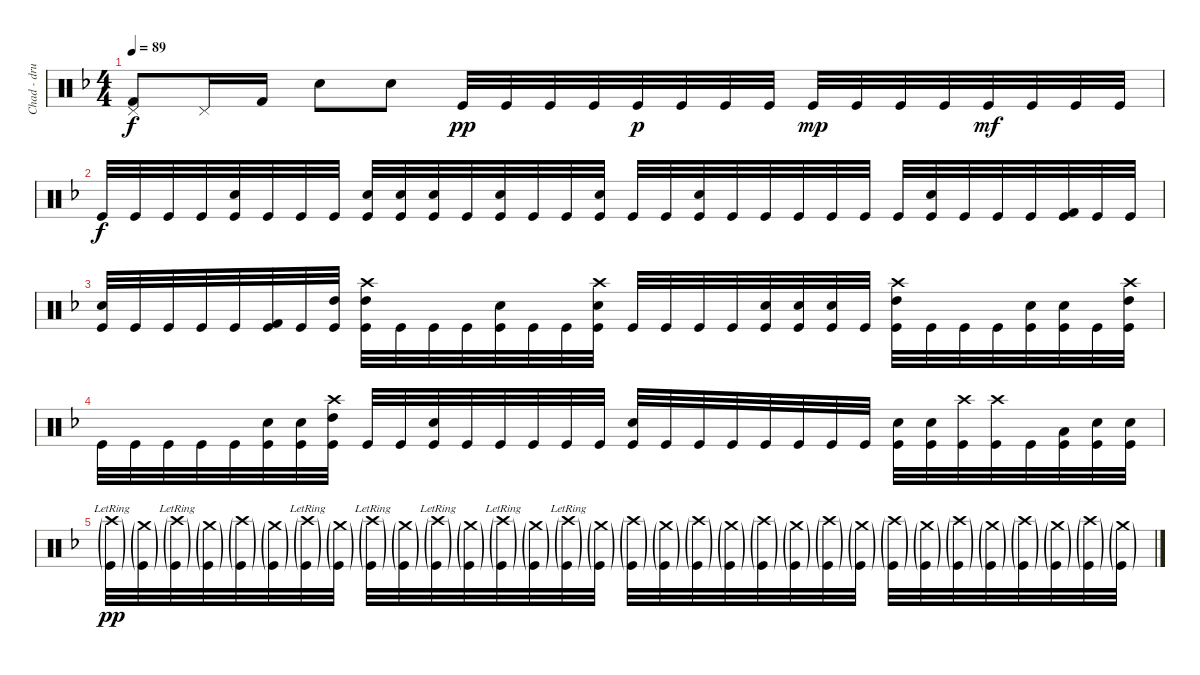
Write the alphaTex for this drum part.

\track ("Chad - drums" "Chad - dru") {instrument percussion}
\staff {score}
\articulation defaults
\ts (4 4)
\tempo 89
\clef neutral
\ks f
("Pedal Hi-Hat (hit)" "Kick (hit) 2").8{dy f} "Pedal Hi-Hat (hit)".16 "Kick (hit) 2".16 "Electric Snare (hit)".8 "Electric Snare (hit)".8 "Kick (hit)".32{dy pp} "Kick (hit)".32 "Kick (hit)".32 "Kick (hit)".32 "Kick (hit)".32{dy p} "Kick (hit)".32 "Kick (hit)".32 "Kick (hit)".32 "Kick (hit)".32{dy mp} "Kick (hit)".32 "Kick (hit)".32 "Kick (hit)".32 "Kick (hit)".32{dy mf} "Kick (hit)".32 "Kick (hit)".32 "Kick (hit)".32 |
"Kick (hit)".32{dy f} "Kick (hit)".32 "Kick (hit)".32 "Kick (hit)".32 ("Electric Snare (hit)" "Kick (hit)").32 "Kick (hit)".32 "Kick (hit)".32 "Kick (hit)".32 ("Electric Snare (hit)" "Kick (hit)").32 ("Electric Snare (hit)" "Kick (hit)").32 ("Electric Snare (hit)" "Kick (hit)").32 "Kick (hit)".32 ("Electric Snare (hit)" "Kick (hit)").32 "Kick (hit)".32 "Kick (hit)".32 ("Electric Snare (hit)" "Kick (hit)").32 "Kick (hit)".32 "Kick (hit)".32 ("Electric Snare (hit)" "Kick (hit)").32 "Kick (hit)".32 "Kick (hit)".32 "Kick (hit)".32 "Kick (hit)".32 "Kick (hit)".32 "Kick (hit)".32 ("Electric Snare (hit)" "Kick (hit)").32 "Kick (hit)".32 "Kick (hit)".32 "Kick (hit)".32 ("Kick (hit) 2" "Kick (hit)").32 "Kick (hit)".32 "Kick (hit)".32 |
("Electric Snare (hit)" "Kick (hit)").32 "Kick (hit)".32 "Kick (hit)".32 "Kick (hit)".32 "Kick (hit)".32 ("Kick (hit) 2" "Kick (hit)").32 "Kick (hit)".32 ("High Tom (hit)" "Kick (hit)").32 ("Crash high (hit)" "High Tom (hit)" "Kick (hit)").32 "Kick (hit)".32 "Kick (hit)".32 "Kick (hit)".32 ("Electric Snare (hit)" "Kick (hit)").32 "Kick (hit)".32 "Kick (hit)".32 ("Crash high (hit)" "Electric Snare (hit)" "Kick (hit)").32 "Kick (hit)".32 "Kick (hit)".32 "Kick (hit)".32 "Kick (hit)".32 ("Electric Snare (hit)" "Kick (hit)").32 ("Electric Snare (hit)" "Kick (hit)").32 ("Electric Snare (hit)" "Kick (hit)").32 "Kick (hit)".32 ("Crash high (hit)" "High Tom (hit)" "Kick (hit)").32 "Kick (hit)".32 "Kick (hit)".32 "Kick (hit)".32 ("Electric Snare (hit)" "Kick (hit)").32 ("Electric Snare (hit)" "Kick (hit)").32 "Kick (hit)".32 ("Crash high (hit)" "High Tom (hit)" "Kick (hit)").32 |
"Kick (hit)".32 "Kick (hit)".32 "Kick (hit)".32 "Kick (hit)".32 "Kick (hit)".32 ("Electric Snare (hit)" "Kick (hit)").32 ("Electric Snare (hit)" "Kick (hit)").32 ("Crash high (hit)" "High Tom (hit)" "Kick (hit)").32 "Kick (hit)".32 "Kick (hit)".32 ("Electric Snare (hit)" "Kick (hit)").32 "Kick (hit)".32 "Kick (hit)".32 "Kick (hit)".32 "Kick (hit)".32 "Kick (hit)".32 ("Electric Snare (hit)" "Kick (hit)").32 "Kick (hit)".32 "Kick (hit)".32 "Kick (hit)".32 "Kick (hit)".32 "Kick (hit)".32 "Kick (hit)".32 "Kick (hit)".32 ("Electric Snare (hit)" "Kick (hit)").32 ("Electric Snare (hit)" "Kick (hit)").32 ("Crash high (hit)" "Kick (hit)").32 ("Crash high (hit)" "Kick (hit)").32 "Kick (hit)".32 ("Low Tom (hit)" "Kick (hit)").32 ("Electric Snare (hit)" "Kick (hit)").32 ("Electric Snare (hit)" "Kick (hit)").32 |
("Crash high (hit)"{g lr} "Kick (hit)"{g}).32{dy pp} ("Crash medium (hit)"{g} "Kick (hit)"{g}).32 ("Crash high (hit)"{g lr} "Kick (hit)"{g}).32 ("Crash medium (hit)"{g} "Kick (hit)"{g}).32 ("Crash high (hit)"{g} "Kick (hit)"{g}).32 ("Crash medium (hit)"{g} "Kick (hit)"{g}).32 ("Crash high (hit)"{g lr} "Kick (hit)"{g}).32 ("Crash medium (hit)"{g} "Kick (hit)"{g}).32 ("Crash high (hit)"{g lr} "Kick (hit)"{g}).32 ("Crash medium (hit)"{g} "Kick (hit)"{g}).32 ("Crash high (hit)"{g lr} "Kick (hit)"{g}).32 ("Crash medium (hit)"{g} "Kick (hit)"{g}).32 ("Crash high (hit)"{g lr} "Kick (hit)"{g}).32 ("Crash medium (hit)"{g} "Kick (hit)"{g}).32 ("Crash high (hit)"{g lr} "Kick (hit)"{g}).32 ("Crash medium (hit)"{g} "Kick (hit)"{g}).32 ("Crash high (hit)"{g} "Kick (hit)"{g}).32 ("Crash medium (hit)"{g} "Kick (hit)"{g}).32 ("Crash high (hit)"{g} "Kick (hit)"{g}).32 ("Crash medium (hit)"{g} "Kick (hit)"{g}).32 ("Crash high (hit)"{g} "Kick (hit)"{g}).32 ("Crash medium (hit)"{g} "Kick (hit)"{g}).32 ("Crash high (hit)"{g} "Kick (hit)"{g}).32 ("Crash medium (hit)"{g} "Kick (hit)"{g}).32 ("Crash high (hit)"{g} "Kick (hit)"{g}).32 ("Crash medium (hit)"{g} "Kick (hit)"{g}).32 ("Crash high (hit)"{g} "Kick (hit)"{g}).32 ("Crash medium (hit)"{g} "Kick (hit)"{g}).32 ("Crash high (hit)"{g} "Kick (hit)"{g}).32 ("Crash medium (hit)"{g} "Kick (hit)"{g}).32 ("Crash high (hit)"{g} "Kick (hit)"{g}).32 ("Crash medium (hit)"{g} "Kick (hit)"{g}).32
